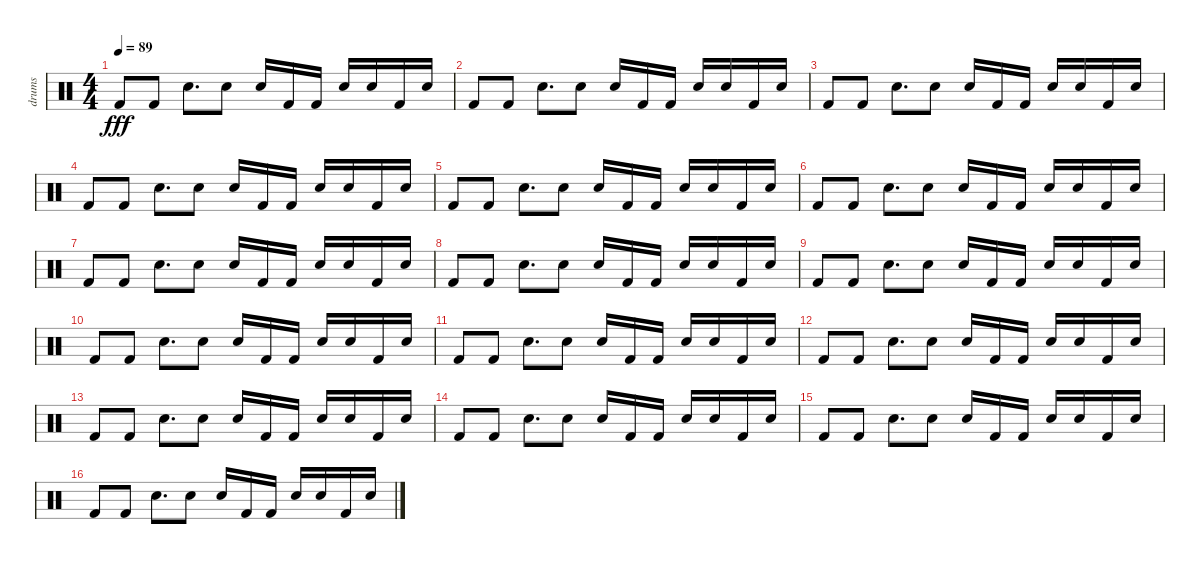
\track ("drums" "drums") {instrument percussion}
\staff {score}
\articulation defaults
\ts (4 4)
\tempo 89
\clef neutral
\ks c "Kick (hit) 2".8{dy fff} "Kick (hit) 2".8 "Electric Snare (hit)".8{d} "Electric Snare (hit)".8 "Electric Snare (hit)".16 "Kick (hit) 2".16 "Kick (hit) 2".16 "Electric Snare (hit)".16 "Electric Snare (hit)".16 "Kick (hit) 2".16 "Electric Snare (hit)".16
|
"Kick (hit) 2".8 "Kick (hit) 2".8 "Electric Snare (hit)".8{d} "Electric Snare (hit)".8 "Electric Snare (hit)".16 "Kick (hit) 2".16 "Kick (hit) 2".16 "Electric Snare (hit)".16 "Electric Snare (hit)".16 "Kick (hit) 2".16 "Electric Snare (hit)".16 |
"Kick (hit) 2".8 "Kick (hit) 2".8 "Electric Snare (hit)".8{d} "Electric Snare (hit)".8 "Electric Snare (hit)".16 "Kick (hit) 2".16 "Kick (hit) 2".16 "Electric Snare (hit)".16 "Electric Snare (hit)".16 "Kick (hit) 2".16 "Electric Snare (hit)".16 |
"Kick (hit) 2".8 "Kick (hit) 2".8 "Electric Snare (hit)".8{d} "Electric Snare (hit)".8 "Electric Snare (hit)".16 "Kick (hit) 2".16 "Kick (hit) 2".16 "Electric Snare (hit)".16 "Electric Snare (hit)".16 "Kick (hit) 2".16 "Electric Snare (hit)".16 |
"Kick (hit) 2".8 "Kick (hit) 2".8 "Electric Snare (hit)".8{d} "Electric Snare (hit)".8 "Electric Snare (hit)".16 "Kick (hit) 2".16 "Kick (hit) 2".16 "Electric Snare (hit)".16 "Electric Snare (hit)".16 "Kick (hit) 2".16 "Electric Snare (hit)".16 |
"Kick (hit) 2".8 "Kick (hit) 2".8 "Electric Snare (hit)".8{d} "Electric Snare (hit)".8 "Electric Snare (hit)".16 "Kick (hit) 2".16 "Kick (hit) 2".16 "Electric Snare (hit)".16 "Electric Snare (hit)".16 "Kick (hit) 2".16 "Electric Snare (hit)".16 |
"Kick (hit) 2".8 "Kick (hit) 2".8 "Electric Snare (hit)".8{d} "Electric Snare (hit)".8 "Electric Snare (hit)".16 "Kick (hit) 2".16 "Kick (hit) 2".16 "Electric Snare (hit)".16 "Electric Snare (hit)".16 "Kick (hit) 2".16 "Electric Snare (hit)".16 |
"Kick (hit) 2".8 "Kick (hit) 2".8 "Electric Snare (hit)".8{d} "Electric Snare (hit)".8 "Electric Snare (hit)".16 "Kick (hit) 2".16 "Kick (hit) 2".16 "Electric Snare (hit)".16 "Electric Snare (hit)".16 "Kick (hit) 2".16 "Electric Snare (hit)".16 |
"Kick (hit) 2".8 "Kick (hit) 2".8 "Electric Snare (hit)".8{d} "Electric Snare (hit)".8 "Electric Snare (hit)".16 "Kick (hit) 2".16 "Kick (hit) 2".16 "Electric Snare (hit)".16 "Electric Snare (hit)".16 "Kick (hit) 2".16 "Electric Snare (hit)".16 |
"Kick (hit) 2".8 "Kick (hit) 2".8 "Electric Snare (hit)".8{d} "Electric Snare (hit)".8 "Electric Snare (hit)".16 "Kick (hit) 2".16 "Kick (hit) 2".16 "Electric Snare (hit)".16 "Electric Snare (hit)".16 "Kick (hit) 2".16 "Electric Snare (hit)".16 |
"Kick (hit) 2".8 "Kick (hit) 2".8 "Electric Snare (hit)".8{d} "Electric Snare (hit)".8 "Electric Snare (hit)".16 "Kick (hit) 2".16 "Kick (hit) 2".16 "Electric Snare (hit)".16 "Electric Snare (hit)".16 "Kick (hit) 2".16 "Electric Snare (hit)".16 |
"Kick (hit) 2".8 "Kick (hit) 2".8 "Electric Snare (hit)".8{d} "Electric Snare (hit)".8 "Electric Snare (hit)".16 "Kick (hit) 2".16 "Kick (hit) 2".16 "Electric Snare (hit)".16 "Electric Snare (hit)".16 "Kick (hit) 2".16 "Electric Snare (hit)".16 |
"Kick (hit) 2".8 "Kick (hit) 2".8 "Electric Snare (hit)".8{d} "Electric Snare (hit)".8 "Electric Snare (hit)".16 "Kick (hit) 2".16 "Kick (hit) 2".16 "Electric Snare (hit)".16 "Electric Snare (hit)".16 "Kick (hit) 2".16 "Electric Snare (hit)".16 |
"Kick (hit) 2".8 "Kick (hit) 2".8 "Electric Snare (hit)".8{d} "Electric Snare (hit)".8 "Electric Snare (hit)".16 "Kick (hit) 2".16 "Kick (hit) 2".16 "Electric Snare (hit)".16 "Electric Snare (hit)".16 "Kick (hit) 2".16 "Electric Snare (hit)".16 |
"Kick (hit) 2".8 "Kick (hit) 2".8 "Electric Snare (hit)".8{d} "Electric Snare (hit)".8 "Electric Snare (hit)".16 "Kick (hit) 2".16 "Kick (hit) 2".16 "Electric Snare (hit)".16 "Electric Snare (hit)".16 "Kick (hit) 2".16 "Electric Snare (hit)".16 |
"Kick (hit) 2".8 "Kick (hit) 2".8 "Electric Snare (hit)".8{d} "Electric Snare (hit)".8 "Electric Snare (hit)".16 "Kick (hit) 2".16 "Kick (hit) 2".16 "Electric Snare (hit)".16 "Electric Snare (hit)".16 "Kick (hit) 2".16 "Electric Snare (hit)".16
